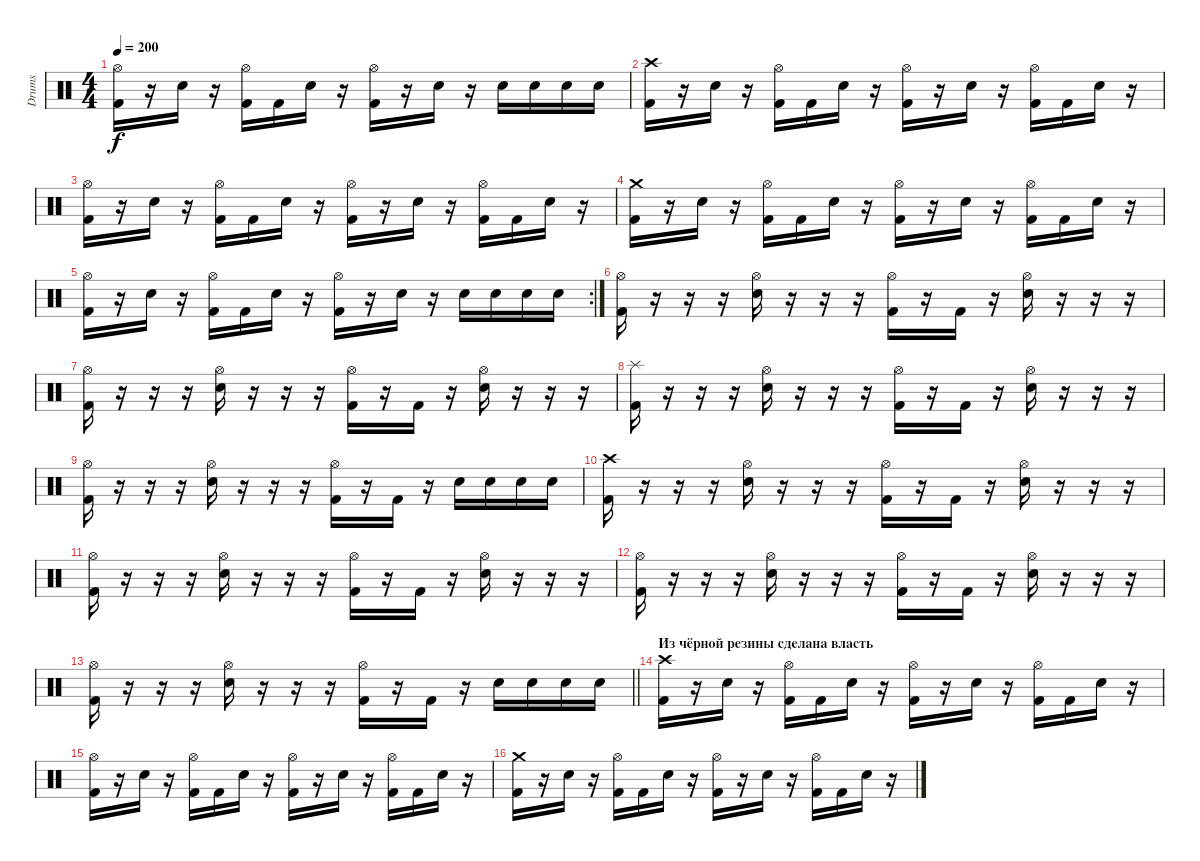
\track ("Drums" "Drums") {instrument percussion}
\staff {score}
\articulation defaults
\ts (4 4)
\tempo 200
\clef neutral
\ks c
("Hi-Hat (open)" "Kick (hit) 2").16{dy f} r.16 "Electric Snare (hit)".16 r.16 ("Hi-Hat (open)" "Kick (hit) 2").16 "Kick (hit) 2".16 "Electric Snare (hit)".16 r.16 ("Hi-Hat (open)" "Kick (hit) 2").16 r.16 "Electric Snare (hit)".16 r.16 "Electric Snare (hit)".16 "Electric Snare (hit)".16 "Electric Snare (hit)".16 "Electric Snare (hit)".16 |
("Crash high (hit)" "Kick (hit) 2").16 r.16 "Electric Snare (hit)".16 r.16 ("Hi-Hat (open)" "Kick (hit) 2").16 "Kick (hit) 2".16 "Electric Snare (hit)".16 r.16 ("Hi-Hat (open)" "Kick (hit) 2").16 r.16 "Electric Snare (hit)".16 r.16 ("Hi-Hat (open)" "Kick (hit) 2").16 "Kick (hit) 2".16 "Electric Snare (hit)".16 r.16 |
("Hi-Hat (open)" "Kick (hit) 2").16 r.16 "Electric Snare (hit)".16 r.16 ("Hi-Hat (open)" "Kick (hit) 2").16 "Kick (hit) 2".16 "Electric Snare (hit)".16 r.16 ("Hi-Hat (open)" "Kick (hit) 2").16 r.16 "Electric Snare (hit)".16 r.16 ("Hi-Hat (open)" "Kick (hit) 2").16 "Kick (hit) 2".16 "Electric Snare (hit)".16 r.16 |
("Crash medium (hit)" "Kick (hit) 2").16 r.16 "Electric Snare (hit)".16 r.16 ("Hi-Hat (open)" "Kick (hit) 2").16 "Kick (hit) 2".16 "Electric Snare (hit)".16 r.16 ("Hi-Hat (open)" "Kick (hit) 2").16 r.16 "Electric Snare (hit)".16 r.16 ("Hi-Hat (open)" "Kick (hit) 2").16 "Kick (hit) 2".16 "Electric Snare (hit)".16 r.16 |
\rc 2
("Hi-Hat (open)" "Kick (hit) 2").16 r.16 "Electric Snare (hit)".16 r.16 ("Hi-Hat (open)" "Kick (hit) 2").16 "Kick (hit) 2".16 "Electric Snare (hit)".16 r.16 ("Hi-Hat (open)" "Kick (hit) 2").16 r.16 "Electric Snare (hit)".16 r.16 "Electric Snare (hit)".16 "Electric Snare (hit)".16 "Electric Snare (hit)".16 "Electric Snare (hit)".16 |
("Hi-Hat (open)" "Kick (hit) 2").16 r.16 r.16 r.16 ("Hi-Hat (open)" "Electric Snare (hit)").16 r.16 r.16 r.16 ("Hi-Hat (open)" "Kick (hit) 2").16 r.16 "Kick (hit) 2".16 r.16 ("Hi-Hat (open)" "Electric Snare (hit)").16 r.16 r.16 r.16 |
("Hi-Hat (open)" "Kick (hit) 2").16 r.16 r.16 r.16 ("Hi-Hat (open)" "Electric Snare (hit)").16 r.16 r.16 r.16 ("Hi-Hat (open)" "Kick (hit) 2").16 r.16 "Kick (hit) 2".16 r.16 ("Hi-Hat (open)" "Electric Snare (hit)").16 r.16 r.16 r.16 |
("Splash (hit)" "Kick (hit) 2").16 r.16 r.16 r.16 ("Hi-Hat (open)" "Electric Snare (hit)").16 r.16 r.16 r.16 ("Hi-Hat (open)" "Kick (hit) 2").16 r.16 "Kick (hit) 2".16 r.16 ("Hi-Hat (open)" "Electric Snare (hit)").16 r.16 r.16 r.16 |
("Hi-Hat (open)" "Kick (hit) 2").16 r.16 r.16 r.16 ("Hi-Hat (open)" "Electric Snare (hit)").16 r.16 r.16 r.16 ("Hi-Hat (open)" "Kick (hit) 2").16 r.16 "Kick (hit) 2".16 r.16 "Electric Snare (hit)".16 "Electric Snare (hit)".16 "Electric Snare (hit)".16 "Electric Snare (hit)".16 |
("Crash high (hit)" "Kick (hit) 2").16 r.16 r.16 r.16 ("Hi-Hat (open)" "Electric Snare (hit)").16 r.16 r.16 r.16 ("Hi-Hat (open)" "Kick (hit) 2").16 r.16 "Kick (hit) 2".16 r.16 ("Hi-Hat (open)" "Electric Snare (hit)").16 r.16 r.16 r.16 |
("Hi-Hat (open)" "Kick (hit) 2").16 r.16 r.16 r.16 ("Hi-Hat (open)" "Electric Snare (hit)").16 r.16 r.16 r.16 ("Hi-Hat (open)" "Kick (hit) 2").16 r.16 "Kick (hit) 2".16 r.16 ("Hi-Hat (open)" "Electric Snare (hit)").16 r.16 r.16 r.16 |
("Hi-Hat (open)" "Kick (hit) 2").16 r.16 r.16 r.16 ("Hi-Hat (open)" "Electric Snare (hit)").16 r.16 r.16 r.16 ("Hi-Hat (open)" "Kick (hit) 2").16 r.16 "Kick (hit) 2".16 r.16 ("Hi-Hat (open)" "Electric Snare (hit)").16 r.16 r.16 r.16 |
\barLineRight lightlight
("Hi-Hat (open)" "Kick (hit) 2").16 r.16 r.16 r.16 ("Hi-Hat (open)" "Electric Snare (hit)").16 r.16 r.16 r.16 ("Hi-Hat (open)" "Kick (hit) 2").16 r.16 "Kick (hit) 2".16 r.16 "Electric Snare (hit)".16 "Electric Snare (hit)".16 "Electric Snare (hit)".16 "Electric Snare (hit)".16 |
\section ("" "Из чёрной резины сделана власть")
("Crash high (hit)" "Kick (hit) 2").16 r.16 "Electric Snare (hit)".16 r.16 ("Hi-Hat (open)" "Kick (hit) 2").16 "Kick (hit) 2".16 "Electric Snare (hit)".16 r.16 ("Hi-Hat (open)" "Kick (hit) 2").16 r.16 "Electric Snare (hit)".16 r.16 ("Hi-Hat (open)" "Kick (hit) 2").16 "Kick (hit) 2".16 "Electric Snare (hit)".16 r.16 |
("Hi-Hat (open)" "Kick (hit) 2").16 r.16 "Electric Snare (hit)".16 r.16 ("Hi-Hat (open)" "Kick (hit) 2").16 "Kick (hit) 2".16 "Electric Snare (hit)".16 r.16 ("Hi-Hat (open)" "Kick (hit) 2").16 r.16 "Electric Snare (hit)".16 r.16 ("Hi-Hat (open)" "Kick (hit) 2").16 "Kick (hit) 2".16 "Electric Snare (hit)".16 r.16 |
("Crash medium (hit)" "Kick (hit) 2").16 r.16 "Electric Snare (hit)".16 r.16 ("Hi-Hat (open)" "Kick (hit) 2").16 "Kick (hit) 2".16 "Electric Snare (hit)".16 r.16 ("Hi-Hat (open)" "Kick (hit) 2").16 r.16 "Electric Snare (hit)".16 r.16 ("Hi-Hat (open)" "Kick (hit) 2").16 "Kick (hit) 2".16 "Electric Snare (hit)".16 r.16
